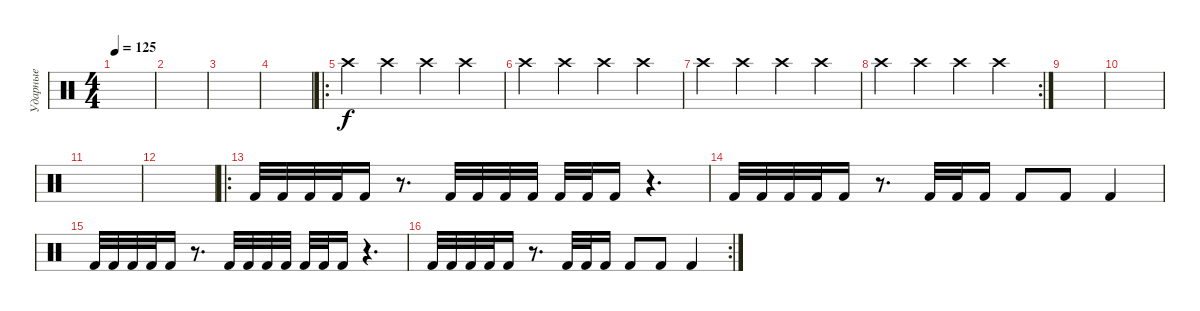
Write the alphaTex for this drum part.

\track ("Ударные" "Ударные") {instrument percussion}
\staff {score}
\articulation defaults
\ts (4 4)
\tempo 125
\clef neutral
\ks c
|
|
|
|
\ro "Crash high (hit)".4 "Crash high (hit)".4 "Crash high (hit)".4 "Crash high (hit)".4
|
"Crash high (hit)".4 "Crash high (hit)".4 "Crash high (hit)".4 "Crash high (hit)".4 |
"Crash high (hit)".4 "Crash high (hit)".4 "Crash high (hit)".4 "Crash high (hit)".4 |
\rc 2 "Crash high (hit)".4 "Crash high (hit)".4 "Crash high (hit)".4 "Crash high (hit)".4
|
|
|
|
|
\ro "Kick (hit) 2".32 "Kick (hit) 2".32 "Kick (hit) 2".32 "Kick (hit) 2".32 "Kick (hit) 2".16
r.8{d} "Kick (hit) 2".32 "Kick (hit) 2".32 "Kick (hit) 2".32 "Kick (hit) 2".32 "Kick (hit) 2".32 "Kick (hit) 2".32 "Kick (hit) 2".16 r.4{d} |
"Kick (hit) 2".32 "Kick (hit) 2".32 "Kick (hit) 2".32 "Kick (hit) 2".32 "Kick (hit) 2".16 r.8{d} "Kick (hit) 2".32 "Kick (hit) 2".32 "Kick (hit) 2".16 "Kick (hit) 2".8 "Kick (hit) 2".8 "Kick (hit) 2".4 |
"Kick (hit) 2".32 "Kick (hit) 2".32 "Kick (hit) 2".32 "Kick (hit) 2".32 "Kick (hit) 2".16 r.8{d} "Kick (hit) 2".32 "Kick (hit) 2".32 "Kick (hit) 2".32 "Kick (hit) 2".32 "Kick (hit) 2".32 "Kick (hit) 2".32 "Kick (hit) 2".16 r.4{d} |
\rc 2 "Kick (hit) 2".32 "Kick (hit) 2".32 "Kick (hit) 2".32 "Kick (hit) 2".32 "Kick (hit) 2".16
r.8{d} "Kick (hit) 2".32 "Kick (hit) 2".32 "Kick (hit) 2".16 "Kick (hit) 2".8 "Kick (hit) 2".8 "Kick (hit) 2".4
